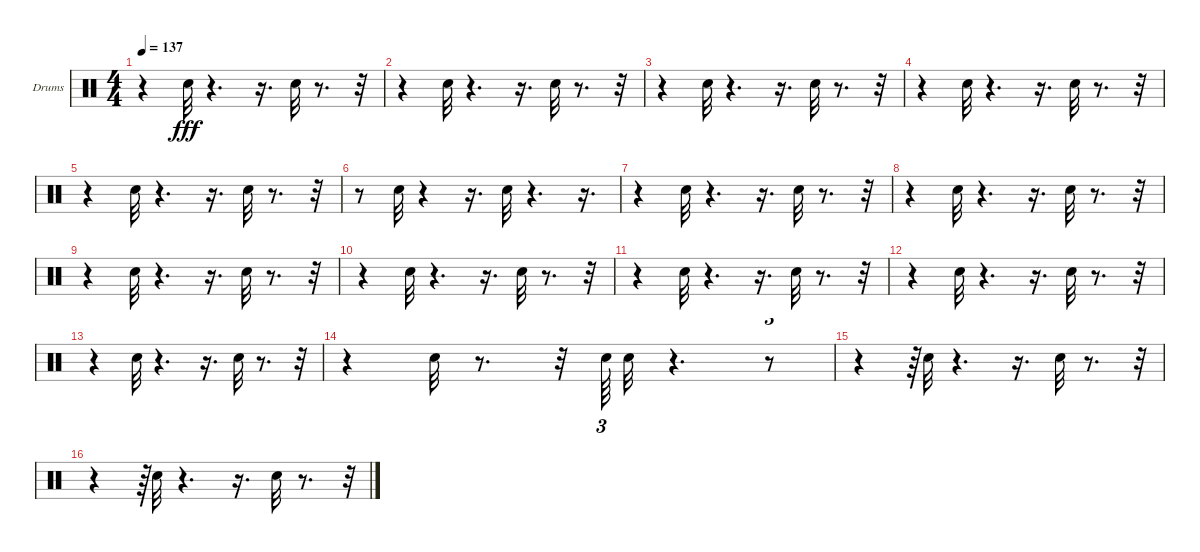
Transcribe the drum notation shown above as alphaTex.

\bracketExtendMode groupsimilarinstruments
\firstSystemTrackNameOrientation horizontal
\otherSystemsTrackNameOrientation horizontal
\track ("Drumkit" "Drums") {instrument percussion}
\staff {score}
\articulation defaults
\ts (4 4)
\tempo 137
\clef neutral
\ks c
r.4{dy fff} "Snare (hit) 2".32 r.4{d} r.16{d} "Snare (hit) 2".32 r.8{d} r.32 |
r.4 "Snare (hit) 2".32 r.4{d} r.16{d} "Snare (hit) 2".32 r.8{d} r.32 |
r.4 "Snare (hit) 2".32 r.4{d} r.16{d} "Snare (hit) 2".32 r.8{d} r.32 |
r.4 "Snare (hit) 2".32 r.4{d} r.16{d} "Snare (hit) 2".32 r.8{d} r.32 |
r.4 "Snare (hit) 2".32 r.4{d} r.16{d} "Snare (hit) 2".32 r.8{d} r.32 |
r.8 "Snare (hit) 2".32 r.4 r.16{d} "Snare (hit) 2".32 r.4{d} r.16{d} |
r.4 "Snare (hit) 2".32 r.4{d} r.16{d} "Snare (hit) 2".32 r.8{d} r.32 |
r.4 "Snare (hit) 2".32 r.4{d} r.16{d} "Snare (hit) 2".32 r.8{d} r.32 |
r.4 "Snare (hit) 2".32 r.4{d} r.16{d} "Snare (hit) 2".32 r.8{d} r.32 |
r.4 "Snare (hit) 2".32 r.4{d} r.16{d} "Snare (hit) 2".32 r.8{d} r.32 |
r.4 "Snare (hit) 2".32 r.4{d} r.16{d} "Snare (hit) 2".32 r.8{d} r.32 |
r.4 "Snare (hit) 2".32 r.4{d} r.16{d} "Snare (hit) 2".32 r.8{d} r.32 |
r.4 "Snare (hit) 2".32 r.4{d} r.16{d} "Snare (hit) 2".32 r.8{d} r.32 |
r.4 "Snare (hit) 2".32 r.8{d} r.32 "Snare (hit) 2".64{tu (3 2)} "Snare (hit) 2".32 r.4{d} r.8{tu (3 2)} |
r.4 r.64{tu (3 2)} "Snare (hit) 2".32 r.4{d} r.16{d} "Snare (hit) 2".32 r.8{d} r.32{tu (3 2)} |
r.4 r.64{tu (3 2)} "Snare (hit) 2".32 r.4{d} r.16{d} "Snare (hit) 2".32 r.8{d} r.32{tu (3 2)}
